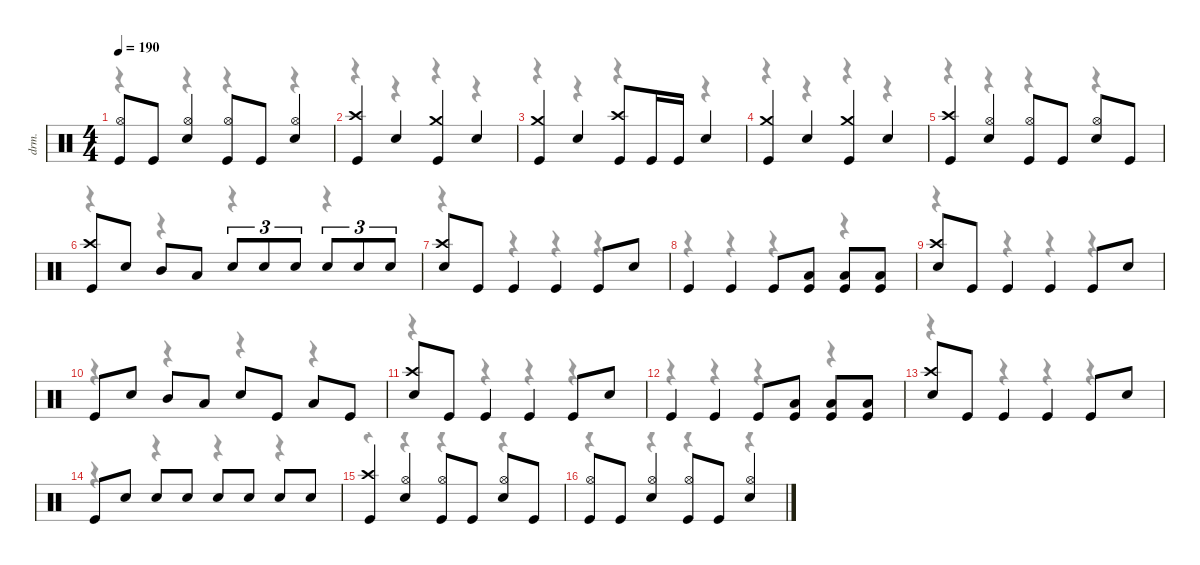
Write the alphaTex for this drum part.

\defaultSystemsLayout 4
\hideDynamics
\bracketExtendMode nobrackets
\track ("Drums" "drm.") {instrument percussion}
\staff {score}
\articulation defaults
\voice
\ts (4 4)
\tempo 190
\clef neutral
\ks c
("Hi-Hat (open)" "Kick (hit)").8{dy f} "Kick (hit)".8 ("Hi-Hat (open)" "Snare (hit) 2").4 ("Hi-Hat (open)" "Kick (hit)").8 "Kick (hit)".8 ("Hi-Hat (open)" "Snare (hit) 2").4 |
("Crash high (hit)" "Kick (hit)").4 "Snare (hit) 2".4 ("Crash medium (hit)" "Kick (hit)").4 "Snare (hit) 2".4 |
("Crash medium (hit)" "Kick (hit)").4 "Snare (hit) 2".4 ("Crash high (hit)" "Kick (hit)").8 "Kick (hit)".16 "Kick (hit)".16 "Snare (hit) 2".4 |
("Crash medium (hit)" "Kick (hit)").4 "Snare (hit) 2".4 ("Crash medium (hit)" "Kick (hit)").4 "Snare (hit) 2".4 |
("Crash high (hit)" "Kick (hit)").4 ("Hi-Hat (open)" "Snare (hit) 2").4 ("Hi-Hat (open)" "Kick (hit)").8 "Kick (hit)".8 ("Hi-Hat (open)" "Snare (hit) 2").8 "Kick (hit)".8 |
("Crash high (hit)" "Kick (hit)").8{beam Up} "Snare (hit) 2".8{beam Up} "Mid Tom (hit)".8{beam Up} "Low Tom (hit)".8{beam Up} "Snare (hit) 2".8{tu (3 2) beam Up} "Snare (hit) 2".8{tu (3 2) beam Up} "Snare (hit) 2".8{tu (3 2) beam Up} "Snare (hit) 2".8{tu (3 2) beam Up} "Snare (hit) 2".8{tu (3 2) beam Up} "Snare (hit) 2".8{tu (3 2) beam Up} |
("Crash high (hit)" "Snare (hit) 2").8{beam Up} "Kick (hit)".8{beam Up} "Kick (hit)".4{beam Up} "Kick (hit)".4{beam Up} "Kick (hit)".8{beam Up} "Snare (hit) 2".8{beam Up} |
"Kick (hit)".4{beam Up} "Kick (hit)".4{beam Up} "Kick (hit)".8{beam Up} ("Low Tom (hit)" "Kick (hit)").8{beam Up} ("Low Tom (hit)" "Kick (hit)").8{beam Up} ("Low Tom (hit)" "Kick (hit)").8{beam Up} |
("Crash high (hit)" "Snare (hit) 2").8{beam Up} "Kick (hit)".8{beam Up} "Kick (hit)".4{beam Up} "Kick (hit)".4{beam Up} "Kick (hit)".8{beam Up} "Snare (hit) 2".8{beam Up} |
"Kick (hit)".8{beam Up} "Snare (hit) 2".8{beam Up} "Mid Tom (hit)".8{beam Up} "Low Tom (hit)".8{beam Up} "Snare (hit) 2".8{beam Up} "Kick (hit)".8{beam Up} "Low Tom (hit)".8{beam Up} "Kick (hit)".8{beam Up} |
("Crash high (hit)" "Snare (hit) 2").8{beam Up} "Kick (hit)".8{beam Up} "Kick (hit)".4{beam Up} "Kick (hit)".4{beam Up} "Kick (hit)".8{beam Up} "Snare (hit) 2".8{beam Up} |
"Kick (hit)".4{beam Up} "Kick (hit)".4{beam Up} "Kick (hit)".8{beam Up} ("Low Tom (hit)" "Kick (hit)").8{beam Up} ("Low Tom (hit)" "Kick (hit)").8{beam Up} ("Low Tom (hit)" "Kick (hit)").8{beam Up} |
("Crash high (hit)" "Snare (hit) 2").8{beam Up} "Kick (hit)".8{beam Up} "Kick (hit)".4{beam Up} "Kick (hit)".4{beam Up} "Kick (hit)".8{beam Up} "Snare (hit) 2".8{beam Up} |
"Kick (hit)".8{beam Up} "Snare (hit) 2".8{beam Up} "Snare (hit) 2".8{beam Up} "Snare (hit) 2".8{beam Up} "Snare (hit) 2".8{beam Up} "Snare (hit) 2".8{beam Up} "Snare (hit) 2".8{beam Up} "Snare (hit) 2".8{beam Up} |
("Crash high (hit)" "Kick (hit)").4{beam Up} ("Hi-Hat (open)" "Snare (hit) 2").4{beam Up} ("Hi-Hat (open)" "Kick (hit)").8{beam Up} "Kick (hit)".8{beam Up} ("Hi-Hat (open)" "Snare (hit) 2").8{beam Up} "Kick (hit)".8{beam Up} |
("Hi-Hat (open)" "Kick (hit)").8{beam Up} "Kick (hit)".8{beam Up} ("Hi-Hat (open)" "Snare (hit) 2").4{beam Up} ("Hi-Hat (open)" "Kick (hit)").8{beam Up} "Kick (hit)".8{beam Up} ("Hi-Hat (open)" "Snare (hit) 2").4{beam Up}
\voice
\clef neutral
\ottava regular
\simile none
\ks c
r.4{dy mf} r.4 r.4 r.4 |
r.4 r.4 r.4 r.4 |
r.4 r.4 r.4 r.4 |
r.4 r.4 r.4 r.4 |
r.4 r.4 r.4 r.4 |
r.4{beam Down} r.4{beam Down} r.4{beam Down} r.4{beam Down} |
r.4{beam Down} r.4{beam Down} r.4{beam Down} r.4{beam Down} |
r.4{beam Down} r.4{beam Down} r.4{beam Down} r.4{beam Down} |
r.4{beam Down} r.4{beam Down} r.4{beam Down} r.4{beam Down} |
r.4{beam Down} r.4{beam Down} r.4{beam Down} r.4{beam Down} |
r.4{beam Down} r.4{beam Down} r.4{beam Down} r.4{beam Down} |
r.4{beam Down} r.4{beam Down} r.4{beam Down} r.4{beam Down} |
r.4{beam Down} r.4{beam Down} r.4{beam Down} r.4{beam Down} |
r.4{beam Down} r.4{beam Down} r.4{beam Down} r.4{beam Down} |
r.4{beam Down} r.4{beam Down} r.4{beam Down} r.4{beam Down} |
r.4{beam Down} r.4{beam Down} r.4{beam Down} r.4{beam Down}
